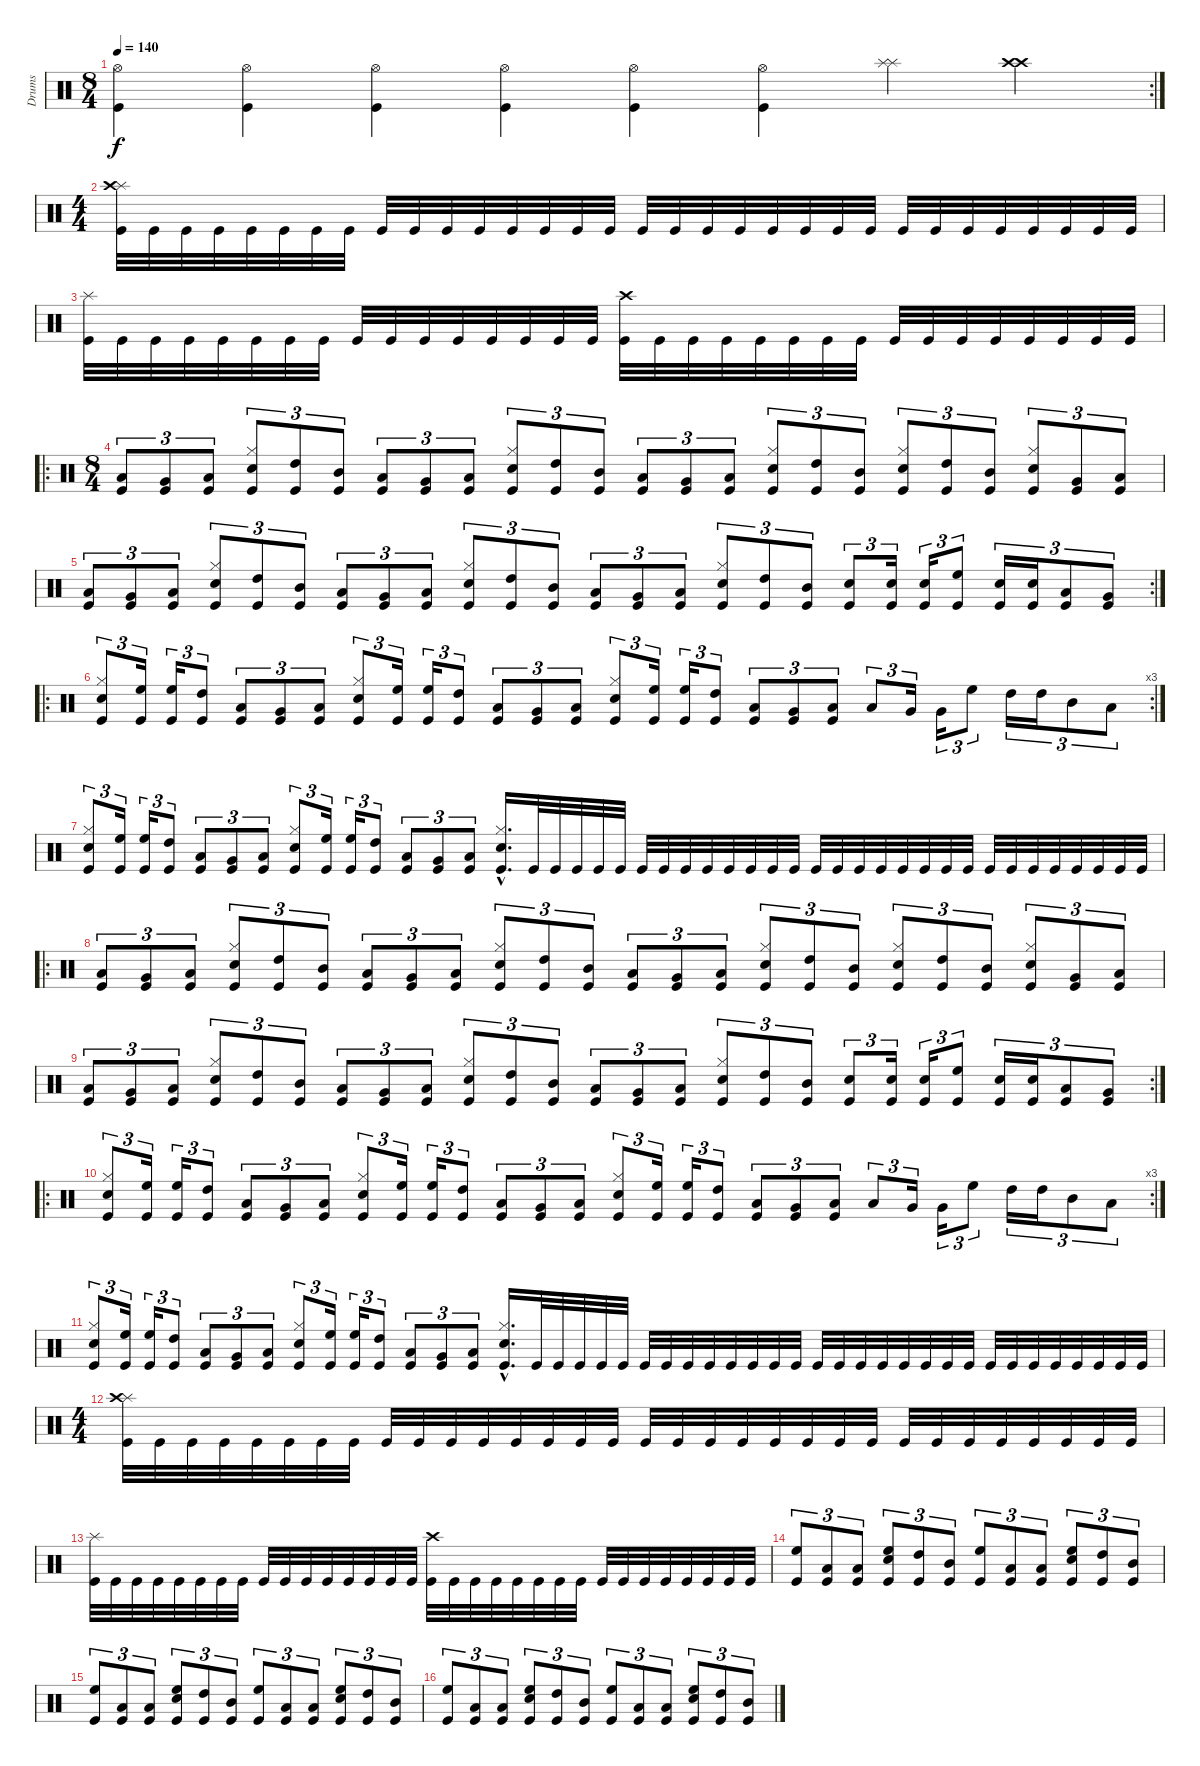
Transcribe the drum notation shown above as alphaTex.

\track ("Drums" "Drums") {instrument percussion}
\staff {score}
\articulation defaults
\rc 2
\ts (8 4)
\tempo 140
\clef neutral
\ks c
("Hi-Hat (open)" "Kick (hit)").4{dy f} ("Hi-Hat (open)" "Kick (hit)").4 ("Hi-Hat (open)" "Kick (hit)").4 ("Hi-Hat (open)" "Kick (hit)").4 ("Hi-Hat (open)" "Kick (hit)").4 ("Hi-Hat (open)" "Kick (hit)").4 ("Splash (hit)" "Splash (hit)").4 ("Crash high (hit)" "Crash high (hit)").4 |
\ts (4 4)
("Splash (hit)" "Crash high (hit)" "Kick (hit)").32 "Kick (hit)".32 "Kick (hit)".32 "Kick (hit)".32 "Kick (hit)".32 "Kick (hit)".32 "Kick (hit)".32 "Kick (hit)".32 "Kick (hit)".32 "Kick (hit)".32 "Kick (hit)".32 "Kick (hit)".32 "Kick (hit)".32 "Kick (hit)".32 "Kick (hit)".32 "Kick (hit)".32 "Kick (hit)".32 "Kick (hit)".32 "Kick (hit)".32 "Kick (hit)".32 "Kick (hit)".32 "Kick (hit)".32 "Kick (hit)".32 "Kick (hit)".32 "Kick (hit)".32 "Kick (hit)".32 "Kick (hit)".32 "Kick (hit)".32 "Kick (hit)".32 "Kick (hit)".32 "Kick (hit)".32 "Kick (hit)".32 |
("Splash (hit)" "Kick (hit)").32 "Kick (hit)".32 "Kick (hit)".32 "Kick (hit)".32 "Kick (hit)".32 "Kick (hit)".32 "Kick (hit)".32 "Kick (hit)".32 "Kick (hit)".32 "Kick (hit)".32 "Kick (hit)".32 "Kick (hit)".32 "Kick (hit)".32 "Kick (hit)".32 "Kick (hit)".32 "Kick (hit)".32 ("Crash high (hit)" "Kick (hit)").32 "Kick (hit)".32 "Kick (hit)".32 "Kick (hit)".32 "Kick (hit)".32 "Kick (hit)".32 "Kick (hit)".32 "Kick (hit)".32 "Kick (hit)".32 "Kick (hit)".32 "Kick (hit)".32 "Kick (hit)".32 "Kick (hit)".32 "Kick (hit)".32 "Kick (hit)".32 "Kick (hit)".32 |
\ro
\ts (8 4)
("Low Tom (hit)" "Kick (hit)").8{tu (3 2)} ("Very Low Tom (hit)" "Kick (hit)").8{tu (3 2)} ("Low Tom (hit)" "Kick (hit)").8{tu (3 2)} ("Hi-Hat (closed)" "Snare (hit) 2" "Kick (hit)").8{tu (3 2)} ("High Tom (hit)" "Kick (hit)").8{tu (3 2)} ("Mid Tom (hit)" "Kick (hit)").8{tu (3 2)} ("Low Tom (hit)" "Kick (hit)").8{tu (3 2)} ("Very Low Tom (hit)" "Kick (hit)").8{tu (3 2)} ("Low Tom (hit)" "Kick (hit)").8{tu (3 2)} ("Hi-Hat (closed)" "Snare (hit) 2" "Kick (hit)").8{tu (3 2)} ("High Tom (hit)" "Kick (hit)").8{tu (3 2)} ("Mid Tom (hit)" "Kick (hit)").8{tu (3 2)} ("Low Tom (hit)" "Kick (hit)").8{tu (3 2)} ("Very Low Tom (hit)" "Kick (hit)").8{tu (3 2)} ("Low Tom (hit)" "Kick (hit)").8{tu (3 2)} ("Hi-Hat (closed)" "Snare (hit) 2" "Kick (hit)").8{tu (3 2)} ("High Tom (hit)" "Kick (hit)").8{tu (3 2)} ("Mid Tom (hit)" "Kick (hit)").8{tu (3 2)} ("Hi-Hat (closed)" "Snare (hit) 2" "Kick (hit)").8{tu (3 2)} ("High Tom (hit)" "Kick (hit)").8{tu (3 2)} ("Mid Tom (hit)" "Kick (hit)").8{tu (3 2)} ("Hi-Hat (closed)" "Snare (hit) 2" "Kick (hit)").8{tu (3 2)} ("Very Low Tom (hit)" "Kick (hit)").8{tu (3 2)} ("Low Floor Tom (hit)" "Kick (hit)").8{tu (3 2)} |
\rc 2
("Low Tom (hit)" "Kick (hit)").8{tu (3 2)} ("Very Low Tom (hit)" "Kick (hit)").8{tu (3 2)} ("Low Tom (hit)" "Kick (hit)").8{tu (3 2)} ("Hi-Hat (closed)" "Snare (hit) 2" "Kick (hit)").8{tu (3 2)} ("High Tom (hit)" "Kick (hit)").8{tu (3 2)} ("Mid Tom (hit)" "Kick (hit)").8{tu (3 2)} ("Low Tom (hit)" "Kick (hit)").8{tu (3 2)} ("Very Low Tom (hit)" "Kick (hit)").8{tu (3 2)} ("Low Tom (hit)" "Kick (hit)").8{tu (3 2)} ("Hi-Hat (closed)" "Snare (hit) 2" "Kick (hit)").8{tu (3 2)} ("High Tom (hit)" "Kick (hit)").8{tu (3 2)} ("Mid Tom (hit)" "Kick (hit)").8{tu (3 2)} ("Low Tom (hit)" "Kick (hit)").8{tu (3 2)} ("Very Low Tom (hit)" "Kick (hit)").8{tu (3 2)} ("Low Tom (hit)" "Kick (hit)").8{tu (3 2)} ("Hi-Hat (closed)" "Snare (hit) 2" "Kick (hit)").8{tu (3 2)} ("High Tom (hit)" "Kick (hit)").8{tu (3 2)} ("Mid Tom (hit)" "Kick (hit)").8{tu (3 2)} ("Snare (hit) 2" "Kick (hit)").8{tu (3 2)} ("Snare (hit) 2" "Kick (hit)").16{tu (3 2)} ("Snare (hit) 2" "Kick (hit)").16{tu (3 2)} ("High Floor Tom (hit)" "Kick (hit)").8{tu (3 2)} ("Snare (hit) 2" "Kick (hit)").16{tu (3 2)} ("Snare (hit) 2" "Kick (hit)").16{tu (3 2)} ("Low Tom (hit)" "Kick (hit)").8{tu (3 2)} ("Very Low Tom (hit)" "Kick (hit)").8{tu (3 2)} |
\ro
\rc 3
("Hi-Hat (closed)" "Snare (hit) 2" "Kick (hit)").8{tu (3 2)} ("High Floor Tom (hit)" "Kick (hit)").16{tu (3 2)} ("High Floor Tom (hit)" "Kick (hit)").16{tu (3 2)} ("High Tom (hit)" "Kick (hit)").8{tu (3 2)} ("Low Floor Tom (hit)" "Kick (hit)").8{tu (3 2)} ("Very Low Tom (hit)" "Kick (hit)").8{tu (3 2)} ("Low Tom (hit)" "Kick (hit)").8{tu (3 2)} ("Hi-Hat (closed)" "Snare (hit) 2" "Kick (hit)").8{tu (3 2)} ("High Floor Tom (hit)" "Kick (hit)").16{tu (3 2)} ("High Floor Tom (hit)" "Kick (hit)").16{tu (3 2)} ("High Tom (hit)" "Kick (hit)").8{tu (3 2)} ("Low Floor Tom (hit)" "Kick (hit)").8{tu (3 2)} ("Very Low Tom (hit)" "Kick (hit)").8{tu (3 2)} ("Low Tom (hit)" "Kick (hit)").8{tu (3 2)} ("Hi-Hat (closed)" "Snare (hit) 2" "Kick (hit)").8{tu (3 2)} ("High Floor Tom (hit)" "Kick (hit)").16{tu (3 2)} ("High Floor Tom (hit)" "Kick (hit)").16{tu (3 2)} ("High Tom (hit)" "Kick (hit)").8{tu (3 2)} ("Low Floor Tom (hit)" "Kick (hit)").8{tu (3 2)} ("Very Low Tom (hit)" "Kick (hit)").8{tu (3 2)} ("Low Tom (hit)" "Kick (hit)").8{tu (3 2)} "Low Floor Tom (hit)".8{tu (3 2)} "Very Low Tom (hit)".16{tu (3 2)} "Very Low Tom (hit)".16{tu (3 2)} "High Floor Tom (hit)".8{tu (3 2)} "High Tom (hit)".16{tu (3 2)} "High Tom (hit)".16{tu (3 2)} "Mid Tom (hit)".8{tu (3 2)} "Low Tom (hit)".8{tu (3 2)} |
("Hi-Hat (closed)" "Snare (hit) 2" "Kick (hit)").8{tu (3 2)} ("High Floor Tom (hit)" "Kick (hit)").16{tu (3 2)} ("High Floor Tom (hit)" "Kick (hit)").16{tu (3 2)} ("High Tom (hit)" "Kick (hit)").8{tu (3 2)} ("Low Floor Tom (hit)" "Kick (hit)").8{tu (3 2)} ("Very Low Tom (hit)" "Kick (hit)").8{tu (3 2)} ("Low Tom (hit)" "Kick (hit)").8{tu (3 2)} ("Hi-Hat (closed)" "Snare (hit) 2" "Kick (hit)").8{tu (3 2)} ("High Floor Tom (hit)" "Kick (hit)").16{tu (3 2)} ("High Floor Tom (hit)" "Kick (hit)").16{tu (3 2)} ("High Tom (hit)" "Kick (hit)").8{tu (3 2)} ("Low Floor Tom (hit)" "Kick (hit)").8{tu (3 2)} ("Very Low Tom (hit)" "Kick (hit)").8{tu (3 2)} ("Low Tom (hit)" "Kick (hit)").8{tu (3 2)} ("Hi-Hat (closed)"{hac} "Snare (hit) 2"{hac} "Kick (hit)"{hac}).16{d} "Kick (hit)".32 "Kick (hit)".32 "Kick (hit)".32 "Kick (hit)".32 "Kick (hit)".32 "Kick (hit)".32 "Kick (hit)".32 "Kick (hit)".32 "Kick (hit)".32 "Kick (hit)".32 "Kick (hit)".32 "Kick (hit)".32 "Kick (hit)".32 "Kick (hit)".32 "Kick (hit)".32 "Kick (hit)".32 "Kick (hit)".32 "Kick (hit)".32 "Kick (hit)".32 "Kick (hit)".32 "Kick (hit)".32 "Kick (hit)".32 "Kick (hit)".32 "Kick (hit)".32 "Kick (hit)".32 "Kick (hit)".32 "Kick (hit)".32 "Kick (hit)".32 "Kick (hit)".32 |
\ro
("Low Tom (hit)" "Kick (hit)").8{tu (3 2)} ("Very Low Tom (hit)" "Kick (hit)").8{tu (3 2)} ("Low Tom (hit)" "Kick (hit)").8{tu (3 2)} ("Hi-Hat (closed)" "Snare (hit) 2" "Kick (hit)").8{tu (3 2)} ("High Tom (hit)" "Kick (hit)").8{tu (3 2)} ("Mid Tom (hit)" "Kick (hit)").8{tu (3 2)} ("Low Tom (hit)" "Kick (hit)").8{tu (3 2)} ("Very Low Tom (hit)" "Kick (hit)").8{tu (3 2)} ("Low Tom (hit)" "Kick (hit)").8{tu (3 2)} ("Hi-Hat (closed)" "Snare (hit) 2" "Kick (hit)").8{tu (3 2)} ("High Tom (hit)" "Kick (hit)").8{tu (3 2)} ("Mid Tom (hit)" "Kick (hit)").8{tu (3 2)} ("Low Tom (hit)" "Kick (hit)").8{tu (3 2)} ("Very Low Tom (hit)" "Kick (hit)").8{tu (3 2)} ("Low Tom (hit)" "Kick (hit)").8{tu (3 2)} ("Hi-Hat (closed)" "Snare (hit) 2" "Kick (hit)").8{tu (3 2)} ("High Tom (hit)" "Kick (hit)").8{tu (3 2)} ("Mid Tom (hit)" "Kick (hit)").8{tu (3 2)} ("Hi-Hat (closed)" "Snare (hit) 2" "Kick (hit)").8{tu (3 2)} ("High Tom (hit)" "Kick (hit)").8{tu (3 2)} ("Mid Tom (hit)" "Kick (hit)").8{tu (3 2)} ("Hi-Hat (closed)" "Snare (hit) 2" "Kick (hit)").8{tu (3 2)} ("Very Low Tom (hit)" "Kick (hit)").8{tu (3 2)} ("Low Floor Tom (hit)" "Kick (hit)").8{tu (3 2)} |
\rc 2
("Low Tom (hit)" "Kick (hit)").8{tu (3 2)} ("Very Low Tom (hit)" "Kick (hit)").8{tu (3 2)} ("Low Tom (hit)" "Kick (hit)").8{tu (3 2)} ("Hi-Hat (closed)" "Snare (hit) 2" "Kick (hit)").8{tu (3 2)} ("High Tom (hit)" "Kick (hit)").8{tu (3 2)} ("Mid Tom (hit)" "Kick (hit)").8{tu (3 2)} ("Low Tom (hit)" "Kick (hit)").8{tu (3 2)} ("Very Low Tom (hit)" "Kick (hit)").8{tu (3 2)} ("Low Tom (hit)" "Kick (hit)").8{tu (3 2)} ("Hi-Hat (closed)" "Snare (hit) 2" "Kick (hit)").8{tu (3 2)} ("High Tom (hit)" "Kick (hit)").8{tu (3 2)} ("Mid Tom (hit)" "Kick (hit)").8{tu (3 2)} ("Low Tom (hit)" "Kick (hit)").8{tu (3 2)} ("Very Low Tom (hit)" "Kick (hit)").8{tu (3 2)} ("Low Tom (hit)" "Kick (hit)").8{tu (3 2)} ("Hi-Hat (closed)" "Snare (hit) 2" "Kick (hit)").8{tu (3 2)} ("High Tom (hit)" "Kick (hit)").8{tu (3 2)} ("Mid Tom (hit)" "Kick (hit)").8{tu (3 2)} ("Snare (hit) 2" "Kick (hit)").8{tu (3 2)} ("Snare (hit) 2" "Kick (hit)").16{tu (3 2)} ("Snare (hit) 2" "Kick (hit)").16{tu (3 2)} ("High Floor Tom (hit)" "Kick (hit)").8{tu (3 2)} ("Snare (hit) 2" "Kick (hit)").16{tu (3 2)} ("Snare (hit) 2" "Kick (hit)").16{tu (3 2)} ("Low Tom (hit)" "Kick (hit)").8{tu (3 2)} ("Very Low Tom (hit)" "Kick (hit)").8{tu (3 2)} |
\ro
\rc 3
("Hi-Hat (closed)" "Snare (hit) 2" "Kick (hit)").8{tu (3 2)} ("High Floor Tom (hit)" "Kick (hit)").16{tu (3 2)} ("High Floor Tom (hit)" "Kick (hit)").16{tu (3 2)} ("High Tom (hit)" "Kick (hit)").8{tu (3 2)} ("Low Floor Tom (hit)" "Kick (hit)").8{tu (3 2)} ("Very Low Tom (hit)" "Kick (hit)").8{tu (3 2)} ("Low Tom (hit)" "Kick (hit)").8{tu (3 2)} ("Hi-Hat (closed)" "Snare (hit) 2" "Kick (hit)").8{tu (3 2)} ("High Floor Tom (hit)" "Kick (hit)").16{tu (3 2)} ("High Floor Tom (hit)" "Kick (hit)").16{tu (3 2)} ("High Tom (hit)" "Kick (hit)").8{tu (3 2)} ("Low Floor Tom (hit)" "Kick (hit)").8{tu (3 2)} ("Very Low Tom (hit)" "Kick (hit)").8{tu (3 2)} ("Low Tom (hit)" "Kick (hit)").8{tu (3 2)} ("Hi-Hat (closed)" "Snare (hit) 2" "Kick (hit)").8{tu (3 2)} ("High Floor Tom (hit)" "Kick (hit)").16{tu (3 2)} ("High Floor Tom (hit)" "Kick (hit)").16{tu (3 2)} ("High Tom (hit)" "Kick (hit)").8{tu (3 2)} ("Low Floor Tom (hit)" "Kick (hit)").8{tu (3 2)} ("Very Low Tom (hit)" "Kick (hit)").8{tu (3 2)} ("Low Tom (hit)" "Kick (hit)").8{tu (3 2)} "Low Floor Tom (hit)".8{tu (3 2)} "Very Low Tom (hit)".16{tu (3 2)} "Very Low Tom (hit)".16{tu (3 2)} "High Floor Tom (hit)".8{tu (3 2)} "High Tom (hit)".16{tu (3 2)} "High Tom (hit)".16{tu (3 2)} "Mid Tom (hit)".8{tu (3 2)} "Low Tom (hit)".8{tu (3 2)} |
("Hi-Hat (closed)" "Snare (hit) 2" "Kick (hit)").8{tu (3 2)} ("High Floor Tom (hit)" "Kick (hit)").16{tu (3 2)} ("High Floor Tom (hit)" "Kick (hit)").16{tu (3 2)} ("High Tom (hit)" "Kick (hit)").8{tu (3 2)} ("Low Floor Tom (hit)" "Kick (hit)").8{tu (3 2)} ("Very Low Tom (hit)" "Kick (hit)").8{tu (3 2)} ("Low Tom (hit)" "Kick (hit)").8{tu (3 2)} ("Hi-Hat (closed)" "Snare (hit) 2" "Kick (hit)").8{tu (3 2)} ("High Floor Tom (hit)" "Kick (hit)").16{tu (3 2)} ("High Floor Tom (hit)" "Kick (hit)").16{tu (3 2)} ("High Tom (hit)" "Kick (hit)").8{tu (3 2)} ("Low Floor Tom (hit)" "Kick (hit)").8{tu (3 2)} ("Very Low Tom (hit)" "Kick (hit)").8{tu (3 2)} ("Low Tom (hit)" "Kick (hit)").8{tu (3 2)} ("Hi-Hat (closed)"{hac} "Snare (hit) 2"{hac} "Kick (hit)"{hac}).16{d} "Kick (hit)".32 "Kick (hit)".32 "Kick (hit)".32 "Kick (hit)".32 "Kick (hit)".32 "Kick (hit)".32 "Kick (hit)".32 "Kick (hit)".32 "Kick (hit)".32 "Kick (hit)".32 "Kick (hit)".32 "Kick (hit)".32 "Kick (hit)".32 "Kick (hit)".32 "Kick (hit)".32 "Kick (hit)".32 "Kick (hit)".32 "Kick (hit)".32 "Kick (hit)".32 "Kick (hit)".32 "Kick (hit)".32 "Kick (hit)".32 "Kick (hit)".32 "Kick (hit)".32 "Kick (hit)".32 "Kick (hit)".32 "Kick (hit)".32 "Kick (hit)".32 "Kick (hit)".32 |
\ts (4 4)
("Splash (hit)" "Crash high (hit)" "Kick (hit)").32 "Kick (hit)".32 "Kick (hit)".32 "Kick (hit)".32 "Kick (hit)".32 "Kick (hit)".32 "Kick (hit)".32 "Kick (hit)".32 "Kick (hit)".32 "Kick (hit)".32 "Kick (hit)".32 "Kick (hit)".32 "Kick (hit)".32 "Kick (hit)".32 "Kick (hit)".32 "Kick (hit)".32 "Kick (hit)".32 "Kick (hit)".32 "Kick (hit)".32 "Kick (hit)".32 "Kick (hit)".32 "Kick (hit)".32 "Kick (hit)".32 "Kick (hit)".32 "Kick (hit)".32 "Kick (hit)".32 "Kick (hit)".32 "Kick (hit)".32 "Kick (hit)".32 "Kick (hit)".32 "Kick (hit)".32 "Kick (hit)".32 |
("Splash (hit)" "Kick (hit)").32 "Kick (hit)".32 "Kick (hit)".32 "Kick (hit)".32 "Kick (hit)".32 "Kick (hit)".32 "Kick (hit)".32 "Kick (hit)".32 "Kick (hit)".32 "Kick (hit)".32 "Kick (hit)".32 "Kick (hit)".32 "Kick (hit)".32 "Kick (hit)".32 "Kick (hit)".32 "Kick (hit)".32 ("Crash high (hit)" "Kick (hit)").32 "Kick (hit)".32 "Kick (hit)".32 "Kick (hit)".32 "Kick (hit)".32 "Kick (hit)".32 "Kick (hit)".32 "Kick (hit)".32 "Kick (hit)".32 "Kick (hit)".32 "Kick (hit)".32 "Kick (hit)".32 "Kick (hit)".32 "Kick (hit)".32 "Kick (hit)".32 "Kick (hit)".32 |
("High Floor Tom (hit)" "Kick (hit)").8{tu (3 2)} ("Low Tom (hit)" "Kick (hit)").8{tu (3 2)} ("Low Floor Tom (hit)" "Kick (hit)").8{tu (3 2)} ("Snare (hit) 2" "High Floor Tom (hit)" "Kick (hit)").8{tu (3 2)} ("High Tom (hit)" "Kick (hit)").8{tu (3 2)} ("Mid Tom (hit)" "Kick (hit)").8{tu (3 2)} ("High Floor Tom (hit)" "Kick (hit)").8{tu (3 2)} ("Low Tom (hit)" "Kick (hit)").8{tu (3 2)} ("Low Floor Tom (hit)" "Kick (hit)").8{tu (3 2)} ("Snare (hit) 2" "High Floor Tom (hit)" "Kick (hit)").8{tu (3 2)} ("High Tom (hit)" "Kick (hit)").8{tu (3 2)} ("Mid Tom (hit)" "Kick (hit)").8{tu (3 2)} |
("High Floor Tom (hit)" "Kick (hit)").8{tu (3 2)} ("Low Tom (hit)" "Kick (hit)").8{tu (3 2)} ("Low Floor Tom (hit)" "Kick (hit)").8{tu (3 2)} ("Snare (hit) 2" "High Floor Tom (hit)" "Kick (hit)").8{tu (3 2)} ("High Tom (hit)" "Kick (hit)").8{tu (3 2)} ("Mid Tom (hit)" "Kick (hit)").8{tu (3 2)} ("High Floor Tom (hit)" "Kick (hit)").8{tu (3 2)} ("Low Tom (hit)" "Kick (hit)").8{tu (3 2)} ("Low Floor Tom (hit)" "Kick (hit)").8{tu (3 2)} ("Snare (hit) 2" "High Floor Tom (hit)" "Kick (hit)").8{tu (3 2)} ("High Tom (hit)" "Kick (hit)").8{tu (3 2)} ("Mid Tom (hit)" "Kick (hit)").8{tu (3 2)} |
("High Floor Tom (hit)" "Kick (hit)").8{tu (3 2)} ("Low Tom (hit)" "Kick (hit)").8{tu (3 2)} ("Low Floor Tom (hit)" "Kick (hit)").8{tu (3 2)} ("Snare (hit) 2" "High Floor Tom (hit)" "Kick (hit)").8{tu (3 2)} ("High Tom (hit)" "Kick (hit)").8{tu (3 2)} ("Mid Tom (hit)" "Kick (hit)").8{tu (3 2)} ("High Floor Tom (hit)" "Kick (hit)").8{tu (3 2)} ("Low Tom (hit)" "Kick (hit)").8{tu (3 2)} ("Low Floor Tom (hit)" "Kick (hit)").8{tu (3 2)} ("Snare (hit) 2" "High Floor Tom (hit)" "Kick (hit)").8{tu (3 2)} ("High Tom (hit)" "Kick (hit)").8{tu (3 2)} ("Mid Tom (hit)" "Kick (hit)").8{tu (3 2)}
